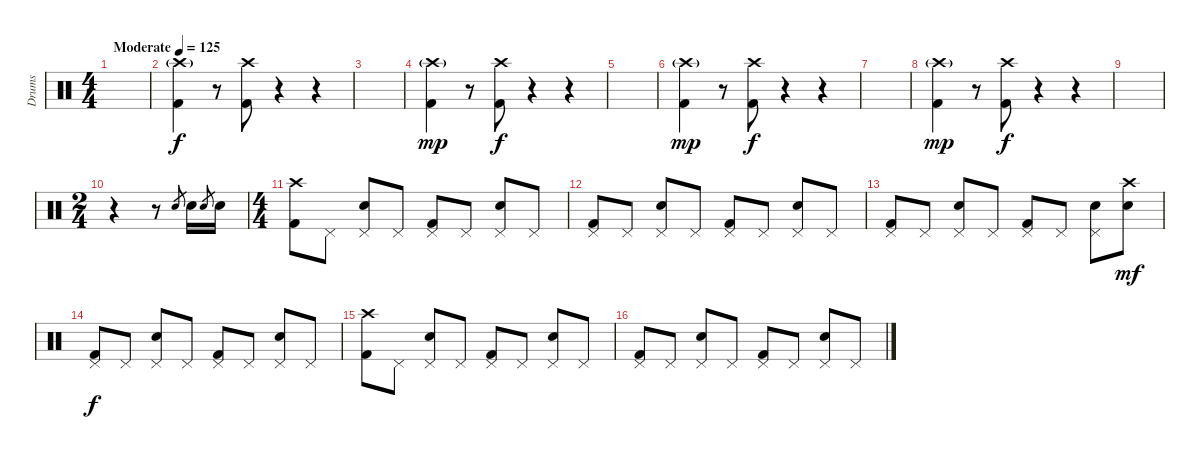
\track ("Drums" "Drums") {instrument percussion}
\staff {score}
\articulation defaults
\ts (4 4)
\tempo (125 "Moderate")
\clef neutral
\ks c
|
("Crash high (hit)"{g} "Kick (hit) 2").4 r.8 ("Crash high (hit)" "Kick (hit) 2").8{dy f} r.4 r.4 |
|
("Crash high (hit)"{g} "Kick (hit) 2").4{dy mp} r.8 ("Crash high (hit)" "Kick (hit) 2").8{dy f} r.4 r.4 |
|
("Crash high (hit)"{g} "Kick (hit) 2").4{dy mp} r.8 ("Crash high (hit)" "Kick (hit) 2").8{dy f} r.4 r.4 |
|
("Crash high (hit)"{g} "Kick (hit) 2").4{dy mp} r.8 ("Crash high (hit)" "Kick (hit) 2").8{dy f} r.4 r.4 |
|
\ts (2 4)
r.4 r.8 "Snare (hit) 2".8{gr} "Snare (hit) 2".16 "Snare (hit) 2".8{gr} "Snare (hit) 2".16 |
\ts (4 4)
("Crash high (hit)" "Kick (hit) 2").8 "Pedal Hi-Hat (hit)".8 ("Pedal Hi-Hat (hit)" "Snare (hit) 2").8 "Pedal Hi-Hat (hit)".8 ("Pedal Hi-Hat (hit)" "Kick (hit) 2").8 "Pedal Hi-Hat (hit)".8 ("Pedal Hi-Hat (hit)" "Snare (hit) 2").8 "Pedal Hi-Hat (hit)".8 |
("Pedal Hi-Hat (hit)" "Kick (hit) 2").8 "Pedal Hi-Hat (hit)".8 ("Pedal Hi-Hat (hit)" "Snare (hit) 2").8 "Pedal Hi-Hat (hit)".8 ("Pedal Hi-Hat (hit)" "Kick (hit) 2").8 "Pedal Hi-Hat (hit)".8 ("Pedal Hi-Hat (hit)" "Snare (hit) 2").8 "Pedal Hi-Hat (hit)".8 |
("Pedal Hi-Hat (hit)" "Kick (hit) 2").8 "Pedal Hi-Hat (hit)".8 ("Pedal Hi-Hat (hit)" "Snare (hit) 2").8 "Pedal Hi-Hat (hit)".8 ("Pedal Hi-Hat (hit)" "Kick (hit) 2").8 "Pedal Hi-Hat (hit)".8 ("Pedal Hi-Hat (hit)" "Snare (hit) 2").8 ("Crash high (hit)" "Snare (hit) 2").8{dy mf} |
("Pedal Hi-Hat (hit)" "Kick (hit) 2").8{dy f} "Pedal Hi-Hat (hit)".8 ("Pedal Hi-Hat (hit)" "Snare (hit) 2").8 "Pedal Hi-Hat (hit)".8 ("Pedal Hi-Hat (hit)" "Kick (hit) 2").8 "Pedal Hi-Hat (hit)".8 ("Pedal Hi-Hat (hit)" "Snare (hit) 2").8 "Pedal Hi-Hat (hit)".8 |
("Crash high (hit)" "Kick (hit) 2").8 "Pedal Hi-Hat (hit)".8 ("Pedal Hi-Hat (hit)" "Snare (hit) 2").8 "Pedal Hi-Hat (hit)".8 ("Pedal Hi-Hat (hit)" "Kick (hit) 2").8 "Pedal Hi-Hat (hit)".8 ("Pedal Hi-Hat (hit)" "Snare (hit) 2").8 "Pedal Hi-Hat (hit)".8 |
("Pedal Hi-Hat (hit)" "Kick (hit) 2").8 "Pedal Hi-Hat (hit)".8 ("Pedal Hi-Hat (hit)" "Snare (hit) 2").8 "Pedal Hi-Hat (hit)".8 ("Pedal Hi-Hat (hit)" "Kick (hit) 2").8 "Pedal Hi-Hat (hit)".8 ("Pedal Hi-Hat (hit)" "Snare (hit) 2").8 "Pedal Hi-Hat (hit)".8
